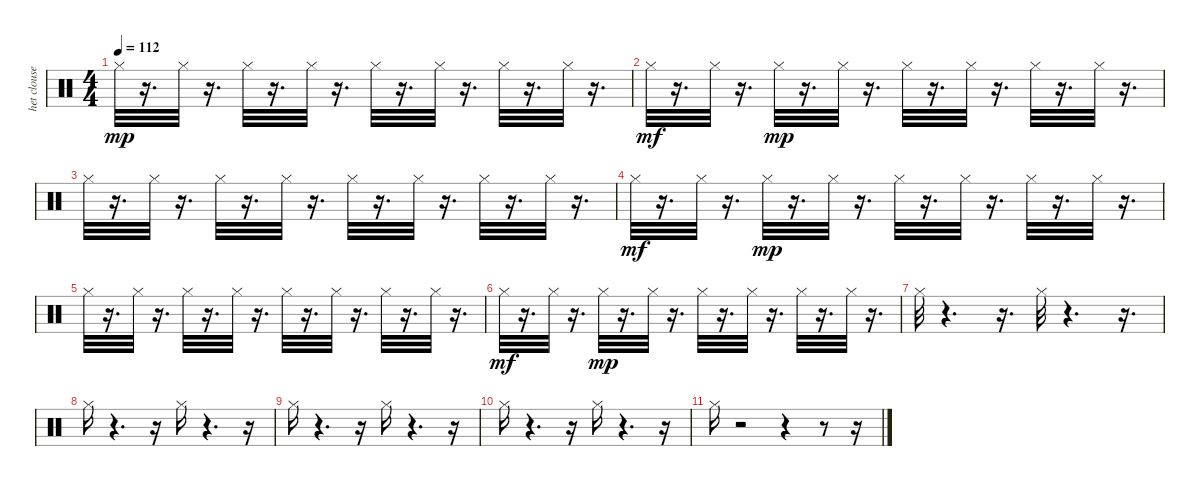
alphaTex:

\track ("het cloused" "het clouse") {instrument percussion}
\staff {score}
\articulation defaults
\ts (4 4)
\tempo 112
\clef neutral
\ks c "Hi-Hat (closed)".32{dy mp}
r.16{d} "Hi-Hat (closed)".32 r.16{d} "Hi-Hat (closed)".32 r.16{d} "Hi-Hat (closed)".32 r.16{d} "Hi-Hat (closed)".32 r.16{d} "Hi-Hat (closed)".32 r.16{d} "Hi-Hat (closed)".32 r.16{d} "Hi-Hat (closed)".32 r.16{d} |
"Hi-Hat (closed)".32{dy mf} r.16{d} "Hi-Hat (closed)".32 r.16{d} "Hi-Hat (closed)".32{dy mp} r.16{d} "Hi-Hat (closed)".32 r.16{d} "Hi-Hat (closed)".32 r.16{d} "Hi-Hat (closed)".32 r.16{d} "Hi-Hat (closed)".32 r.16{d} "Hi-Hat (closed)".32 r.16{d} |
"Hi-Hat (closed)".32 r.16{d} "Hi-Hat (closed)".32 r.16{d} "Hi-Hat (closed)".32 r.16{d} "Hi-Hat (closed)".32 r.16{d} "Hi-Hat (closed)".32 r.16{d} "Hi-Hat (closed)".32 r.16{d} "Hi-Hat (closed)".32 r.16{d} "Hi-Hat (closed)".32 r.16{d} |
"Hi-Hat (closed)".32{dy mf} r.16{d} "Hi-Hat (closed)".32 r.16{d} "Hi-Hat (closed)".32{dy mp} r.16{d} "Hi-Hat (closed)".32 r.16{d} "Hi-Hat (closed)".32 r.16{d} "Hi-Hat (closed)".32 r.16{d} "Hi-Hat (closed)".32 r.16{d} "Hi-Hat (closed)".32 r.16{d} |
"Hi-Hat (closed)".32 r.16{d} "Hi-Hat (closed)".32 r.16{d} "Hi-Hat (closed)".32 r.16{d} "Hi-Hat (closed)".32 r.16{d} "Hi-Hat (closed)".32 r.16{d} "Hi-Hat (closed)".32 r.16{d} "Hi-Hat (closed)".32 r.16{d} "Hi-Hat (closed)".32 r.16{d} |
"Hi-Hat (closed)".32{dy mf} r.16{d} "Hi-Hat (closed)".32 r.16{d} "Hi-Hat (closed)".32{dy mp} r.16{d} "Hi-Hat (closed)".32 r.16{d} "Hi-Hat (closed)".32 r.16{d} "Hi-Hat (closed)".32 r.16{d} "Hi-Hat (closed)".32 r.16{d} "Hi-Hat (closed)".32 r.16{d} |
"Hi-Hat (closed)".32 r.4{d} r.16{d} "Hi-Hat (closed)".32 r.4{d} r.16{d} |
"Hi-Hat (closed)".16 r.4{d} r.16 "Hi-Hat (closed)".16 r.4{d} r.16 |
"Hi-Hat (closed)".16 r.4{d} r.16 "Hi-Hat (closed)".16 r.4{d} r.16 |
"Hi-Hat (closed)".16 r.4{d} r.16 "Hi-Hat (closed)".16 r.4{d} r.16 |
"Hi-Hat (closed)".16 r.2 r.4 r.8 r.16
